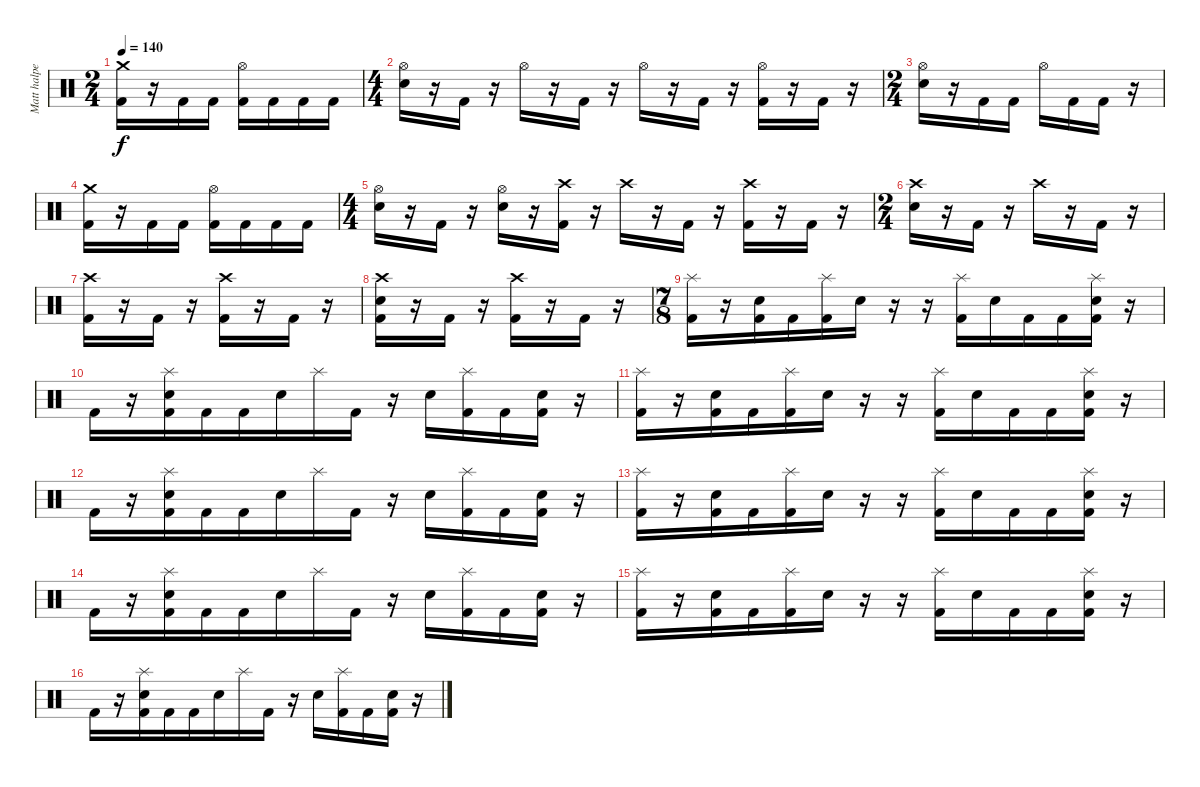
\track ("Matt halpern" "Matt halpe") {instrument percussion}
\staff {score}
\articulation defaults
\ts (2 4)
\tempo 140
\clef neutral
\ks c
("Crash medium (hit)" "Kick (hit) 2").16{dy f} r.16 "Kick (hit) 2".16 "Kick (hit) 2".16 ("Hi-Hat (open)" "Kick (hit) 2").16 "Kick (hit) 2".16 "Kick (hit) 2".16 "Kick (hit) 2".16 |
\ts (4 4)
("Hi-Hat (open)" "Electric Snare (hit)").16 r.16 "Kick (hit) 2".16 r.16 "Hi-Hat (open)".16 r.16 "Kick (hit) 2".16 r.16 "Hi-Hat (open)".16 r.16 "Kick (hit) 2".16 r.16 ("Hi-Hat (open)" "Kick (hit) 2").16 r.16 "Kick (hit) 2".16 r.16 |
\ts (2 4)
("Hi-Hat (open)" "Electric Snare (hit)").16 r.16 "Kick (hit) 2".16 "Kick (hit) 2".16 "Hi-Hat (open)".16 "Kick (hit) 2".16 "Kick (hit) 2".16 r.16 |
("Crash medium (hit)" "Kick (hit) 2").16 r.16 "Kick (hit) 2".16 "Kick (hit) 2".16 ("Hi-Hat (open)" "Kick (hit) 2").16 "Kick (hit) 2".16 "Kick (hit) 2".16 "Kick (hit) 2".16 |
\ts (4 4)
("Hi-Hat (open)" "Electric Snare (hit)").16 r.16 "Kick (hit) 2".16 r.16 ("Hi-Hat (open)" "Electric Snare (hit)").16 r.16 ("Crash high (hit)" "Kick (hit) 2").16 r.16 "Crash high (hit)".16 r.16 "Kick (hit) 2".16 r.16 ("Crash high (hit)" "Kick (hit) 2").16 r.16 "Kick (hit) 2".16 r.16 |
\ts (2 4)
("Crash high (hit)" "Electric Snare (hit)").16 r.16 "Kick (hit) 2".16 r.16 "Crash high (hit)".16 r.16 "Kick (hit) 2".16 r.16 |
("Crash high (hit)" "Kick (hit) 2").16 r.16 "Kick (hit) 2".16 r.16 ("Crash high (hit)" "Kick (hit) 2").16 r.16 "Kick (hit) 2".16 r.16 |
("Crash high (hit)" "Electric Snare (hit)" "Kick (hit) 2").16 r.16 "Kick (hit) 2".16 r.16 ("Crash high (hit)" "Kick (hit) 2").16 r.16 "Kick (hit) 2".16 r.16 |
\ts (7 8)
("Splash (hit)" "Kick (hit) 2").16 r.16 ("Electric Snare (hit)" "Kick (hit) 2").16 "Kick (hit) 2".16 ("Splash (hit)" "Kick (hit) 2").16 "Electric Snare (hit)".16 r.16 r.16 ("Splash (hit)" "Kick (hit) 2").16 "Electric Snare (hit)".16 "Kick (hit) 2".16 "Kick (hit) 2".16 ("Splash (hit)" "Electric Snare (hit)" "Kick (hit) 2").16 r.16 |
"Kick (hit) 2".16 r.16 ("Splash (hit)" "Electric Snare (hit)" "Kick (hit) 2").16 "Kick (hit) 2".16 "Kick (hit) 2".16 "Electric Snare (hit)".16 "Splash (hit)".16 "Kick (hit) 2".16 r.16 "Electric Snare (hit)".16 ("Splash (hit)" "Kick (hit) 2").16 "Kick (hit) 2".16 ("Electric Snare (hit)" "Kick (hit) 2").16 r.16 |
("Splash (hit)" "Kick (hit) 2").16 r.16 ("Electric Snare (hit)" "Kick (hit) 2").16 "Kick (hit) 2".16 ("Splash (hit)" "Kick (hit) 2").16 "Electric Snare (hit)".16 r.16 r.16 ("Splash (hit)" "Kick (hit) 2").16 "Electric Snare (hit)".16 "Kick (hit) 2".16 "Kick (hit) 2".16 ("Splash (hit)" "Electric Snare (hit)" "Kick (hit) 2").16 r.16 |
"Kick (hit) 2".16 r.16 ("Splash (hit)" "Electric Snare (hit)" "Kick (hit) 2").16 "Kick (hit) 2".16 "Kick (hit) 2".16 "Electric Snare (hit)".16 "Splash (hit)".16 "Kick (hit) 2".16 r.16 "Electric Snare (hit)".16 ("Splash (hit)" "Kick (hit) 2").16 "Kick (hit) 2".16 ("Electric Snare (hit)" "Kick (hit) 2").16 r.16 |
("Splash (hit)" "Kick (hit) 2").16 r.16 ("Electric Snare (hit)" "Kick (hit) 2").16 "Kick (hit) 2".16 ("Splash (hit)" "Kick (hit) 2").16 "Electric Snare (hit)".16 r.16 r.16 ("Splash (hit)" "Kick (hit) 2").16 "Electric Snare (hit)".16 "Kick (hit) 2".16 "Kick (hit) 2".16 ("Splash (hit)" "Electric Snare (hit)" "Kick (hit) 2").16 r.16 |
"Kick (hit) 2".16 r.16 ("Splash (hit)" "Electric Snare (hit)" "Kick (hit) 2").16 "Kick (hit) 2".16 "Kick (hit) 2".16 "Electric Snare (hit)".16 "Splash (hit)".16 "Kick (hit) 2".16 r.16 "Electric Snare (hit)".16 ("Splash (hit)" "Kick (hit) 2").16 "Kick (hit) 2".16 ("Electric Snare (hit)" "Kick (hit) 2").16 r.16 |
("Splash (hit)" "Kick (hit) 2").16 r.16 ("Electric Snare (hit)" "Kick (hit) 2").16 "Kick (hit) 2".16 ("Splash (hit)" "Kick (hit) 2").16 "Electric Snare (hit)".16 r.16 r.16 ("Splash (hit)" "Kick (hit) 2").16 "Electric Snare (hit)".16 "Kick (hit) 2".16 "Kick (hit) 2".16 ("Splash (hit)" "Electric Snare (hit)" "Kick (hit) 2").16 r.16 |
"Kick (hit) 2".16 r.16 ("Splash (hit)" "Electric Snare (hit)" "Kick (hit) 2").16 "Kick (hit) 2".16 "Kick (hit) 2".16 "Electric Snare (hit)".16 "Splash (hit)".16 "Kick (hit) 2".16 r.16 "Electric Snare (hit)".16 ("Splash (hit)" "Kick (hit) 2").16 "Kick (hit) 2".16 ("Electric Snare (hit)" "Kick (hit) 2").16 r.16
